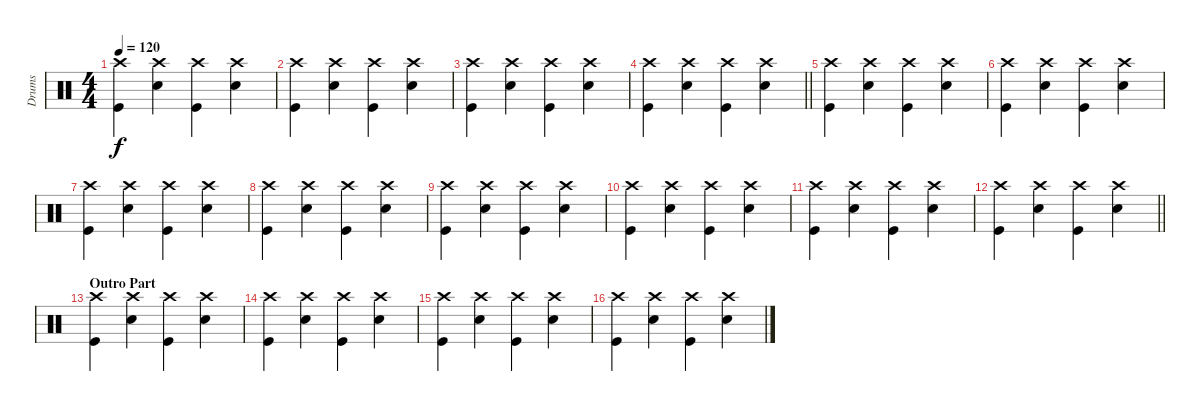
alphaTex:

\track ("Drums" "Drums") {instrument percussion}
\staff {score}
\articulation defaults
\ts (4 4)
\tempo 120
\clef neutral
\ks c
("Crash high (hit)" "Kick (hit)").4{dy f} ("Crash high (hit)" "Snare (hit) 2").4 ("Crash high (hit)" "Kick (hit)").4 ("Crash high (hit)" "Snare (hit) 2").4 |
("Crash high (hit)" "Kick (hit)").4 ("Crash high (hit)" "Snare (hit) 2").4 ("Crash high (hit)" "Kick (hit)").4 ("Crash high (hit)" "Snare (hit) 2").4 |
("Crash high (hit)" "Kick (hit)").4 ("Crash high (hit)" "Snare (hit) 2").4 ("Crash high (hit)" "Kick (hit)").4 ("Crash high (hit)" "Snare (hit) 2").4 |
\barLineRight lightlight
("Crash high (hit)" "Kick (hit)").4 ("Crash high (hit)" "Snare (hit) 2").4 ("Crash high (hit)" "Kick (hit)").4 ("Crash high (hit)" "Snare (hit) 2").4 |
("Crash high (hit)" "Kick (hit)").4 ("Crash high (hit)" "Snare (hit) 2").4 ("Crash high (hit)" "Kick (hit)").4 ("Crash high (hit)" "Snare (hit) 2").4 |
("Crash high (hit)" "Kick (hit)").4 ("Crash high (hit)" "Snare (hit) 2").4 ("Crash high (hit)" "Kick (hit)").4 ("Crash high (hit)" "Snare (hit) 2").4 |
("Crash high (hit)" "Kick (hit)").4 ("Crash high (hit)" "Snare (hit) 2").4 ("Crash high (hit)" "Kick (hit)").4 ("Crash high (hit)" "Snare (hit) 2").4 |
("Crash high (hit)" "Kick (hit)").4 ("Crash high (hit)" "Snare (hit) 2").4 ("Crash high (hit)" "Kick (hit)").4 ("Crash high (hit)" "Snare (hit) 2").4 |
("Crash high (hit)" "Kick (hit)").4 ("Crash high (hit)" "Snare (hit) 2").4 ("Crash high (hit)" "Kick (hit)").4 ("Crash high (hit)" "Snare (hit) 2").4 |
("Crash high (hit)" "Kick (hit)").4 ("Crash high (hit)" "Snare (hit) 2").4 ("Crash high (hit)" "Kick (hit)").4 ("Crash high (hit)" "Snare (hit) 2").4 |
("Crash high (hit)" "Kick (hit)").4 ("Crash high (hit)" "Snare (hit) 2").4 ("Crash high (hit)" "Kick (hit)").4 ("Crash high (hit)" "Snare (hit) 2").4 |
\barLineRight lightlight
("Crash high (hit)" "Kick (hit)").4 ("Crash high (hit)" "Snare (hit) 2").4 ("Crash high (hit)" "Kick (hit)").4 ("Crash high (hit)" "Snare (hit) 2").4 |
\section ("" "Outro Part")
("Crash high (hit)" "Kick (hit)").4 ("Crash high (hit)" "Snare (hit) 2").4 ("Crash high (hit)" "Kick (hit)").4 ("Crash high (hit)" "Snare (hit) 2").4 |
("Crash high (hit)" "Kick (hit)").4 ("Crash high (hit)" "Snare (hit) 2").4 ("Crash high (hit)" "Kick (hit)").4 ("Crash high (hit)" "Snare (hit) 2").4 |
("Crash high (hit)" "Kick (hit)").4 ("Crash high (hit)" "Snare (hit) 2").4 ("Crash high (hit)" "Kick (hit)").4 ("Crash high (hit)" "Snare (hit) 2").4 |
("Crash high (hit)" "Kick (hit)").4 ("Crash high (hit)" "Snare (hit) 2").4 ("Crash high (hit)" "Kick (hit)").4 ("Crash high (hit)" "Snare (hit) 2").4
